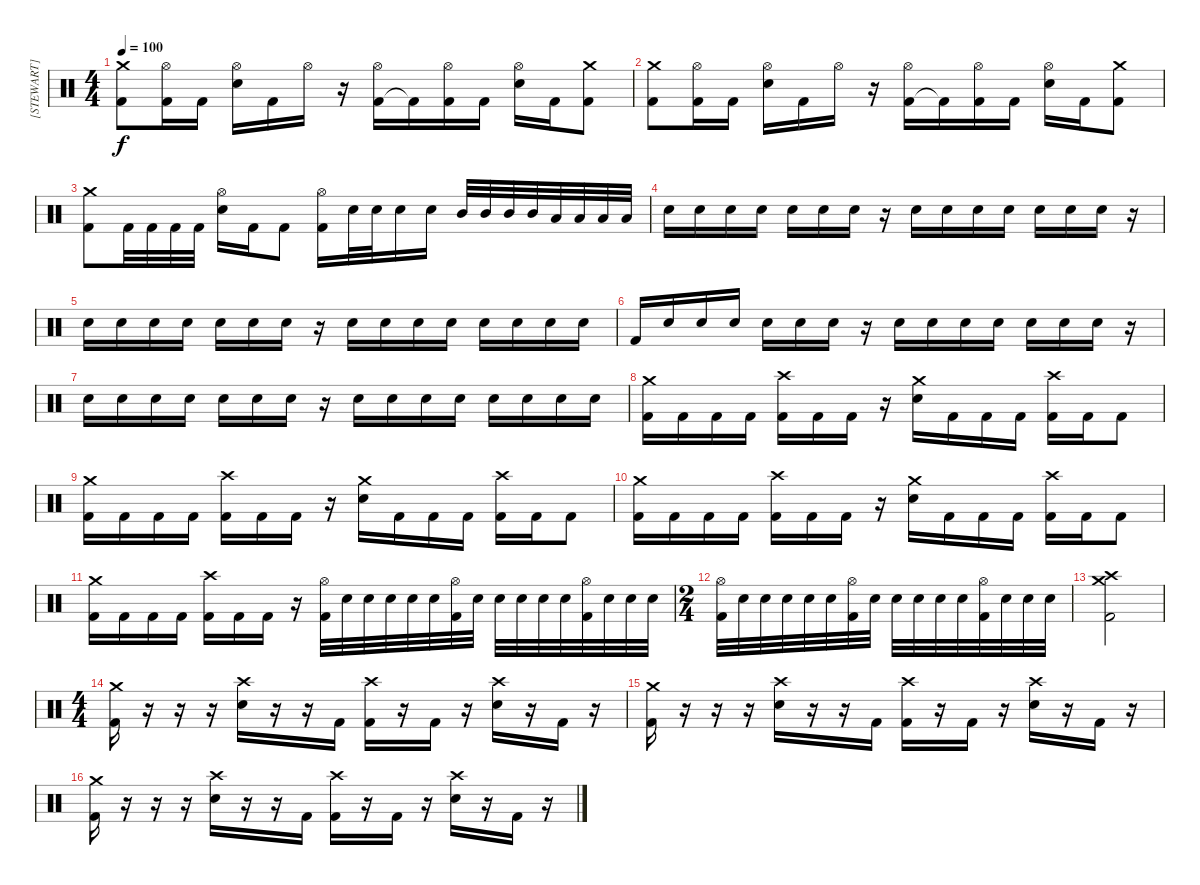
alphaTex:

\track ("[STEWART]" "[STEWART]") {instrument percussion}
\staff {score}
\articulation defaults
\ts (4 4)
\tempo 100
\clef neutral
\ks c
("Kick (hit) 2" "Crash medium (hit)").8{dy f} ("Kick (hit) 2" "Hi-Hat (open)").16 "Kick (hit) 2".16 ("Electric Snare (hit)" "Hi-Hat (open)").16 "Kick (hit) 2".16 "Hi-Hat (open)".16 r.16 ("Kick (hit) 2" "Hi-Hat (open)").16 "Kick (hit) 2"{t}.16 ("Kick (hit) 2" "Hi-Hat (open)").16 "Kick (hit) 2".16 ("Electric Snare (hit)" "Hi-Hat (open)").16 "Kick (hit) 2".16 ("Kick (hit) 2" "Crash medium (hit)").8 |
("Kick (hit) 2" "Crash medium (hit)").8 ("Kick (hit) 2" "Hi-Hat (open)").16 "Kick (hit) 2".16 ("Electric Snare (hit)" "Hi-Hat (open)").16 "Kick (hit) 2".16 "Hi-Hat (open)".16 r.16 ("Kick (hit) 2" "Hi-Hat (open)").16 "Kick (hit) 2"{t}.16 ("Kick (hit) 2" "Hi-Hat (open)").16 "Kick (hit) 2".16 ("Electric Snare (hit)" "Hi-Hat (open)").16 "Kick (hit) 2".16 ("Kick (hit) 2" "Crash medium (hit)").8 |
("Kick (hit) 2" "Crash medium (hit)").8 "Kick (hit) 2".32 "Kick (hit) 2".32 "Kick (hit) 2".32 "Kick (hit) 2".32 ("Electric Snare (hit)" "Hi-Hat (open)").16 "Kick (hit) 2".16 "Kick (hit) 2".8 ("Kick (hit) 2" "Hi-Hat (open)").16 "Electric Snare (hit)".32 "Electric Snare (hit)".32 "Electric Snare (hit)".16 "Electric Snare (hit)".16 "Mid Tom (hit)".32 "Mid Tom (hit)".32 "Mid Tom (hit)".32 "Mid Tom (hit)".32 "Low Tom (hit)".32 "Low Tom (hit)".32 "Low Tom (hit)".32 "Low Tom (hit)".32 |
"Electric Snare (hit)".16 "Electric Snare (hit)".16 "Electric Snare (hit)".16 "Electric Snare (hit)".16 "Electric Snare (hit)".16 "Electric Snare (hit)".16 "Electric Snare (hit)".16 r.16 "Electric Snare (hit)".16 "Electric Snare (hit)".16 "Electric Snare (hit)".16 "Electric Snare (hit)".16 "Electric Snare (hit)".16 "Electric Snare (hit)".16 "Electric Snare (hit)".16 r.16 |
"Electric Snare (hit)".16 "Electric Snare (hit)".16 "Electric Snare (hit)".16 "Electric Snare (hit)".16 "Electric Snare (hit)".16 "Electric Snare (hit)".16 "Electric Snare (hit)".16 r.16 "Electric Snare (hit)".16 "Electric Snare (hit)".16 "Electric Snare (hit)".16 "Electric Snare (hit)".16 "Electric Snare (hit)".16 "Electric Snare (hit)".16 "Electric Snare (hit)".16 "Electric Snare (hit)".16 |
"Kick (hit) 2".16 "Electric Snare (hit)".16 "Electric Snare (hit)".16 "Electric Snare (hit)".16 "Electric Snare (hit)".16 "Electric Snare (hit)".16 "Electric Snare (hit)".16 r.16 "Electric Snare (hit)".16 "Electric Snare (hit)".16 "Electric Snare (hit)".16 "Electric Snare (hit)".16 "Electric Snare (hit)".16 "Electric Snare (hit)".16 "Electric Snare (hit)".16 r.16 |
"Electric Snare (hit)".16 "Electric Snare (hit)".16 "Electric Snare (hit)".16 "Electric Snare (hit)".16 "Electric Snare (hit)".16 "Electric Snare (hit)".16 "Electric Snare (hit)".16 r.16 "Electric Snare (hit)".16 "Electric Snare (hit)".16 "Electric Snare (hit)".16 "Electric Snare (hit)".16 "Electric Snare (hit)".16 "Electric Snare (hit)".16 "Electric Snare (hit)".16 "Electric Snare (hit)".16 |
("Kick (hit) 2" "Crash medium (hit)").16 "Kick (hit) 2".16 "Kick (hit) 2".16 "Kick (hit) 2".16 ("Kick (hit) 2" "Crash high (hit)").16 "Kick (hit) 2".16 "Kick (hit) 2".16 r.16 ("Electric Snare (hit)" "Crash medium (hit)").16 "Kick (hit) 2".16 "Kick (hit) 2".16 "Kick (hit) 2".16 ("Kick (hit) 2" "Crash high (hit)").16 "Kick (hit) 2".16 "Kick (hit) 2".8 |
("Kick (hit) 2" "Crash medium (hit)").16 "Kick (hit) 2".16 "Kick (hit) 2".16 "Kick (hit) 2".16 ("Kick (hit) 2" "Crash high (hit)").16 "Kick (hit) 2".16 "Kick (hit) 2".16 r.16 ("Electric Snare (hit)" "Crash medium (hit)").16 "Kick (hit) 2".16 "Kick (hit) 2".16 "Kick (hit) 2".16 ("Kick (hit) 2" "Crash high (hit)").16 "Kick (hit) 2".16 "Kick (hit) 2".8 |
("Kick (hit) 2" "Crash medium (hit)").16 "Kick (hit) 2".16 "Kick (hit) 2".16 "Kick (hit) 2".16 ("Kick (hit) 2" "Crash high (hit)").16 "Kick (hit) 2".16 "Kick (hit) 2".16 r.16 ("Electric Snare (hit)" "Crash medium (hit)").16 "Kick (hit) 2".16 "Kick (hit) 2".16 "Kick (hit) 2".16 ("Kick (hit) 2" "Crash high (hit)").16 "Kick (hit) 2".16 "Kick (hit) 2".8 |
("Kick (hit) 2" "Crash medium (hit)").16 "Kick (hit) 2".16 "Kick (hit) 2".16 "Kick (hit) 2".16 ("Kick (hit) 2" "Crash high (hit)").16 "Kick (hit) 2".16 "Kick (hit) 2".16 r.16 ("Kick (hit) 2" "Hi-Hat (open)").32 "Electric Snare (hit)".32 "Electric Snare (hit)".32 "Electric Snare (hit)".32 "Electric Snare (hit)".32 "Electric Snare (hit)".32 ("Kick (hit) 2" "Hi-Hat (open)").32 "Electric Snare (hit)".32 "Electric Snare (hit)".32 "Electric Snare (hit)".32 "Electric Snare (hit)".32 "Electric Snare (hit)".32 ("Kick (hit) 2" "Hi-Hat (open)").32 "Electric Snare (hit)".32 "Electric Snare (hit)".32 "Electric Snare (hit)".32 |
\ts (2 4)
("Kick (hit) 2" "Hi-Hat (open)").32 "Electric Snare (hit)".32 "Electric Snare (hit)".32 "Electric Snare (hit)".32 "Electric Snare (hit)".32 "Electric Snare (hit)".32 ("Kick (hit) 2" "Hi-Hat (open)").32 "Electric Snare (hit)".32 "Electric Snare (hit)".32 "Electric Snare (hit)".32 "Electric Snare (hit)".32 "Electric Snare (hit)".32 ("Kick (hit) 2" "Hi-Hat (open)").32 "Electric Snare (hit)".32 "Electric Snare (hit)".32 "Electric Snare (hit)".32 |
("Crash medium (hit)" "Crash high (hit)" "Kick (hit) 2").2 |
\ts (4 4)
("Kick (hit) 2" "Crash medium (hit)").16 r.16 r.16 r.16 ("Electric Snare (hit)" "Crash high (hit)").16 r.16 r.16 "Kick (hit) 2".16 ("Kick (hit) 2" "Crash high (hit)").16 r.16 "Kick (hit) 2".16 r.16 ("Electric Snare (hit)" "Crash high (hit)").16 r.16 "Kick (hit) 2".16 r.16 |
("Kick (hit) 2" "Crash medium (hit)").16 r.16 r.16 r.16 ("Electric Snare (hit)" "Crash high (hit)").16 r.16 r.16 "Kick (hit) 2".16 ("Kick (hit) 2" "Crash high (hit)").16 r.16 "Kick (hit) 2".16 r.16 ("Electric Snare (hit)" "Crash high (hit)").16 r.16 "Kick (hit) 2".16 r.16 |
("Kick (hit) 2" "Crash medium (hit)").16 r.16 r.16 r.16 ("Electric Snare (hit)" "Crash high (hit)").16 r.16 r.16 "Kick (hit) 2".16 ("Kick (hit) 2" "Crash high (hit)").16 r.16 "Kick (hit) 2".16 r.16 ("Electric Snare (hit)" "Crash high (hit)").16 r.16 "Kick (hit) 2".16 r.16
